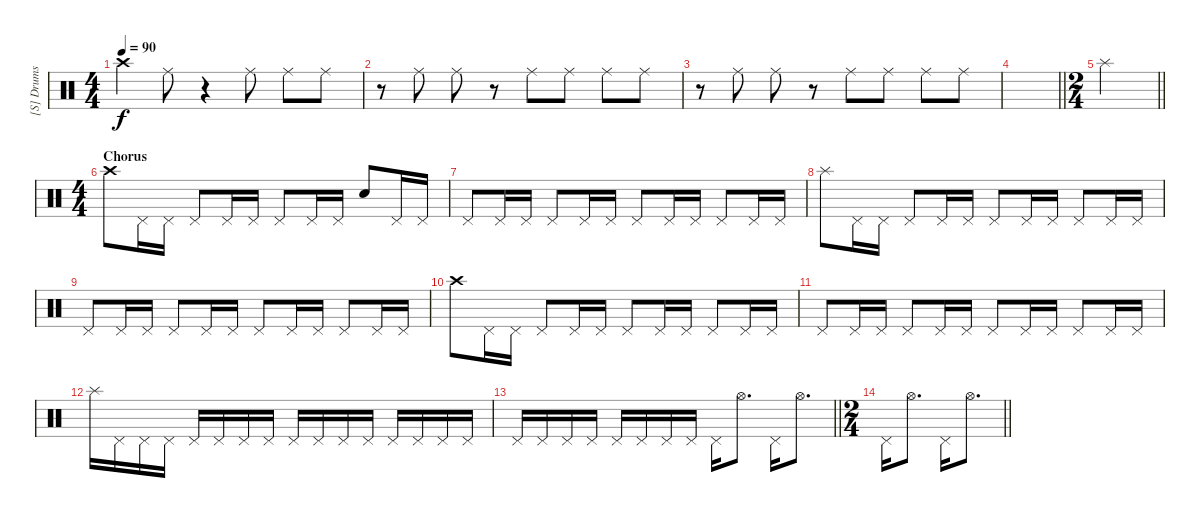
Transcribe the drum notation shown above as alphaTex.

\track ("[S] Drums II (Stewart)" "[S] Drums ") {instrument percussion}
\staff {score}
\articulation defaults
\ts (4 4)
\tempo 90
\clef neutral
\ks c "Crash high (hit)".4{dy f} "Ride (middle)".8
r.4 "Ride (middle)".8 "Ride (middle)".8 "Ride (middle)".8 |
r.8 "Ride (middle)".8 "Ride (middle)".8 r.8 "Ride (middle)".8 "Ride (middle)".8 "Ride (middle)".8 "Ride (middle)".8 |
r.8 "Ride (middle)".8 "Ride (middle)".8 r.8 "Ride (middle)".8 "Ride (middle)".8 "Ride (middle)".8 "Ride (middle)".8 |
\barLineRight lightlight
|
\ts (2 4)
\barLineRight lightlight "Splash (hit)".2
|
\ts (4 4)
\section ("" "Chorus")
"Crash high (hit)".8 "Pedal Hi-Hat (hit)".16 "Pedal Hi-Hat (hit)".16 "Pedal Hi-Hat (hit)".8 "Pedal Hi-Hat (hit)".16 "Pedal Hi-Hat (hit)".16 "Pedal Hi-Hat (hit)".8 "Pedal Hi-Hat (hit)".16 "Pedal Hi-Hat (hit)".16 "Snare (hit)".8 "Pedal Hi-Hat (hit)".16 "Pedal Hi-Hat (hit)".16 |
"Pedal Hi-Hat (hit)".8 "Pedal Hi-Hat (hit)".16 "Pedal Hi-Hat (hit)".16 "Pedal Hi-Hat (hit)".8 "Pedal Hi-Hat (hit)".16 "Pedal Hi-Hat (hit)".16 "Pedal Hi-Hat (hit)".8 "Pedal Hi-Hat (hit)".16 "Pedal Hi-Hat (hit)".16 "Pedal Hi-Hat (hit)".8 "Pedal Hi-Hat (hit)".16 "Pedal Hi-Hat (hit)".16 |
"Splash (hit)".8 "Pedal Hi-Hat (hit)".16 "Pedal Hi-Hat (hit)".16 "Pedal Hi-Hat (hit)".8 "Pedal Hi-Hat (hit)".16 "Pedal Hi-Hat (hit)".16 "Pedal Hi-Hat (hit)".8 "Pedal Hi-Hat (hit)".16 "Pedal Hi-Hat (hit)".16 "Pedal Hi-Hat (hit)".8 "Pedal Hi-Hat (hit)".16 "Pedal Hi-Hat (hit)".16 |
"Pedal Hi-Hat (hit)".8 "Pedal Hi-Hat (hit)".16 "Pedal Hi-Hat (hit)".16 "Pedal Hi-Hat (hit)".8 "Pedal Hi-Hat (hit)".16 "Pedal Hi-Hat (hit)".16 "Pedal Hi-Hat (hit)".8 "Pedal Hi-Hat (hit)".16 "Pedal Hi-Hat (hit)".16 "Pedal Hi-Hat (hit)".8 "Pedal Hi-Hat (hit)".16 "Pedal Hi-Hat (hit)".16 |
"Crash high (hit)".8 "Pedal Hi-Hat (hit)".16 "Pedal Hi-Hat (hit)".16 "Pedal Hi-Hat (hit)".8 "Pedal Hi-Hat (hit)".16 "Pedal Hi-Hat (hit)".16 "Pedal Hi-Hat (hit)".8 "Pedal Hi-Hat (hit)".16 "Pedal Hi-Hat (hit)".16 "Pedal Hi-Hat (hit)".8 "Pedal Hi-Hat (hit)".16 "Pedal Hi-Hat (hit)".16 |
"Pedal Hi-Hat (hit)".8 "Pedal Hi-Hat (hit)".16 "Pedal Hi-Hat (hit)".16 "Pedal Hi-Hat (hit)".8 "Pedal Hi-Hat (hit)".16 "Pedal Hi-Hat (hit)".16 "Pedal Hi-Hat (hit)".8 "Pedal Hi-Hat (hit)".16 "Pedal Hi-Hat (hit)".16 "Pedal Hi-Hat (hit)".8 "Pedal Hi-Hat (hit)".16 "Pedal Hi-Hat (hit)".16 |
"Splash (hit)".16 "Pedal Hi-Hat (hit)".16 "Pedal Hi-Hat (hit)".16 "Pedal Hi-Hat (hit)".16 "Pedal Hi-Hat (hit)".16 "Pedal Hi-Hat (hit)".16 "Pedal Hi-Hat (hit)".16 "Pedal Hi-Hat (hit)".16 "Pedal Hi-Hat (hit)".16 "Pedal Hi-Hat (hit)".16 "Pedal Hi-Hat (hit)".16 "Pedal Hi-Hat (hit)".16 "Pedal Hi-Hat (hit)".16 "Pedal Hi-Hat (hit)".16 "Pedal Hi-Hat (hit)".16 "Pedal Hi-Hat (hit)".16 |
\barLineRight lightlight "Pedal Hi-Hat (hit)".16 "Pedal Hi-Hat (hit)".16 "Pedal Hi-Hat (hit)".16 "Pedal Hi-Hat (hit)".16 "Pedal Hi-Hat (hit)".16 "Pedal Hi-Hat (hit)".16 "Pedal Hi-Hat (hit)".16 "Pedal Hi-Hat (hit)".16 "Pedal Hi-Hat (hit)".16 "Hi-Hat (open)".8{d} "Pedal Hi-Hat (hit)".16 "Hi-Hat (open)".8{d}
|
\ts (2 4)
\barLineRight lightlight "Pedal Hi-Hat (hit)".16 "Hi-Hat (open)".8{d} "Pedal Hi-Hat (hit)".16 "Hi-Hat (open)".8{d}
